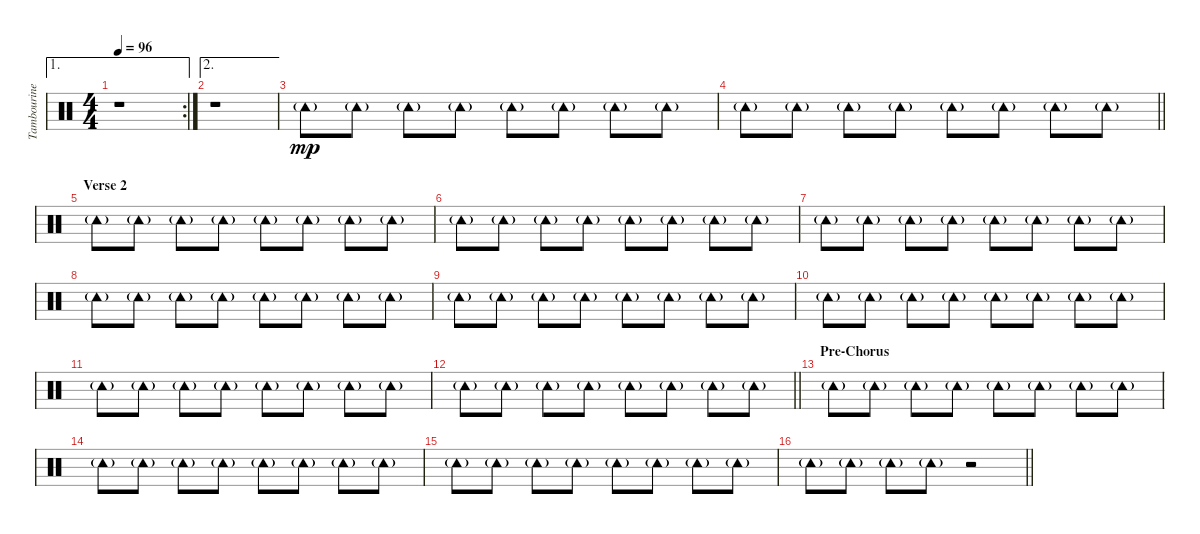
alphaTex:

\track ("Tambourine" "Tambourine") {instrument percussion}
\staff {score}
\articulation defaults
\ae 1
\rc 2
\ts (4 4)
\tempo 96
\clef neutral
\ks c
r.1{dy mp} |
\ae 2
r.1 |
"Tambourine (hit)"{g}.8 "Tambourine (hit)"{g}.8 "Tambourine (hit)"{g}.8 "Tambourine (hit)"{g}.8 "Tambourine (hit)"{g}.8 "Tambourine (hit)"{g}.8 "Tambourine (hit)"{g}.8 "Tambourine (hit)"{g}.8 |
\barLineRight lightlight "Tambourine (hit)"{g}.8 "Tambourine (hit)"{g}.8 "Tambourine (hit)"{g}.8 "Tambourine (hit)"{g}.8 "Tambourine (hit)"{g}.8 "Tambourine (hit)"{g}.8 "Tambourine (hit)"{g}.8 "Tambourine (hit)"{g}.8
|
\section ("" "Verse 2")
"Tambourine (hit)"{g}.8 "Tambourine (hit)"{g}.8 "Tambourine (hit)"{g}.8 "Tambourine (hit)"{g}.8 "Tambourine (hit)"{g}.8 "Tambourine (hit)"{g}.8 "Tambourine (hit)"{g}.8 "Tambourine (hit)"{g}.8 |
"Tambourine (hit)"{g}.8 "Tambourine (hit)"{g}.8 "Tambourine (hit)"{g}.8 "Tambourine (hit)"{g}.8 "Tambourine (hit)"{g}.8 "Tambourine (hit)"{g}.8 "Tambourine (hit)"{g}.8 "Tambourine (hit)"{g}.8 |
"Tambourine (hit)"{g}.8 "Tambourine (hit)"{g}.8 "Tambourine (hit)"{g}.8 "Tambourine (hit)"{g}.8 "Tambourine (hit)"{g}.8 "Tambourine (hit)"{g}.8 "Tambourine (hit)"{g}.8 "Tambourine (hit)"{g}.8 |
"Tambourine (hit)"{g}.8 "Tambourine (hit)"{g}.8 "Tambourine (hit)"{g}.8 "Tambourine (hit)"{g}.8 "Tambourine (hit)"{g}.8 "Tambourine (hit)"{g}.8 "Tambourine (hit)"{g}.8 "Tambourine (hit)"{g}.8 |
"Tambourine (hit)"{g}.8 "Tambourine (hit)"{g}.8 "Tambourine (hit)"{g}.8 "Tambourine (hit)"{g}.8 "Tambourine (hit)"{g}.8 "Tambourine (hit)"{g}.8 "Tambourine (hit)"{g}.8 "Tambourine (hit)"{g}.8 |
"Tambourine (hit)"{g}.8 "Tambourine (hit)"{g}.8 "Tambourine (hit)"{g}.8 "Tambourine (hit)"{g}.8 "Tambourine (hit)"{g}.8 "Tambourine (hit)"{g}.8 "Tambourine (hit)"{g}.8 "Tambourine (hit)"{g}.8 |
"Tambourine (hit)"{g}.8 "Tambourine (hit)"{g}.8 "Tambourine (hit)"{g}.8 "Tambourine (hit)"{g}.8 "Tambourine (hit)"{g}.8 "Tambourine (hit)"{g}.8 "Tambourine (hit)"{g}.8 "Tambourine (hit)"{g}.8 |
\barLineRight lightlight "Tambourine (hit)"{g}.8 "Tambourine (hit)"{g}.8 "Tambourine (hit)"{g}.8 "Tambourine (hit)"{g}.8 "Tambourine (hit)"{g}.8 "Tambourine (hit)"{g}.8 "Tambourine (hit)"{g}.8 "Tambourine (hit)"{g}.8
|
\section ("" "Pre-Chorus")
"Tambourine (hit)"{g}.8 "Tambourine (hit)"{g}.8 "Tambourine (hit)"{g}.8 "Tambourine (hit)"{g}.8 "Tambourine (hit)"{g}.8 "Tambourine (hit)"{g}.8 "Tambourine (hit)"{g}.8 "Tambourine (hit)"{g}.8 |
"Tambourine (hit)"{g}.8 "Tambourine (hit)"{g}.8 "Tambourine (hit)"{g}.8 "Tambourine (hit)"{g}.8 "Tambourine (hit)"{g}.8 "Tambourine (hit)"{g}.8 "Tambourine (hit)"{g}.8 "Tambourine (hit)"{g}.8 |
"Tambourine (hit)"{g}.8 "Tambourine (hit)"{g}.8 "Tambourine (hit)"{g}.8 "Tambourine (hit)"{g}.8 "Tambourine (hit)"{g}.8 "Tambourine (hit)"{g}.8 "Tambourine (hit)"{g}.8 "Tambourine (hit)"{g}.8 |
\barLineRight lightlight "Tambourine (hit)"{g}.8 "Tambourine (hit)"{g}.8 "Tambourine (hit)"{g}.8 "Tambourine (hit)"{g}.8
r.2
